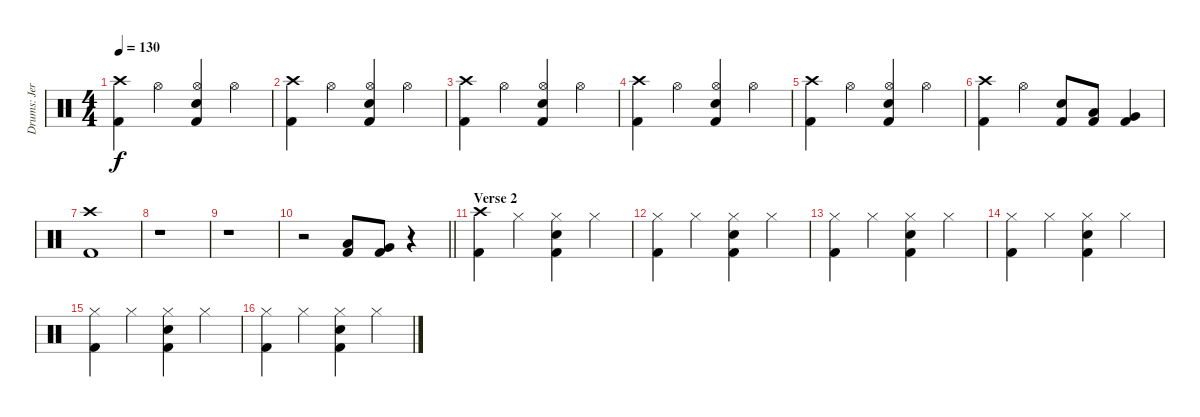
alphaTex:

\track ("Drums: Jere Luokkamäki" "Drums: Jer") {instrument percussion}
\staff {score}
\articulation defaults
\ts (4 4)
\tempo 130
\clef neutral
\ks aminor
("Crash high (hit)" "Kick (hit) 2").4{dy f} "Hi-Hat (open)".4 ("Hi-Hat (open)" "Electric Snare (hit)" "Kick (hit) 2").4 "Hi-Hat (open)".4 |
("Crash high (hit)" "Kick (hit) 2").4 "Hi-Hat (open)".4 ("Hi-Hat (open)" "Electric Snare (hit)" "Kick (hit) 2").4 "Hi-Hat (open)".4 |
("Crash high (hit)" "Kick (hit) 2").4 "Hi-Hat (open)".4 ("Hi-Hat (open)" "Electric Snare (hit)" "Kick (hit) 2").4 "Hi-Hat (open)".4 |
("Crash high (hit)" "Kick (hit) 2").4 "Hi-Hat (open)".4 ("Hi-Hat (open)" "Electric Snare (hit)" "Kick (hit) 2").4 "Hi-Hat (open)".4 |
("Crash high (hit)" "Kick (hit) 2").4 "Hi-Hat (open)".4 ("Hi-Hat (open)" "Electric Snare (hit)" "Kick (hit) 2").4 "Hi-Hat (open)".4 |
("Crash high (hit)" "Kick (hit) 2").4 "Hi-Hat (open)".4 ("Electric Snare (hit)" "Kick (hit) 2").8 ("Low Tom (hit)" "Kick (hit) 2").8 ("Very Low Tom (hit)" "Kick (hit) 2").4 |
("Crash high (hit)" "Kick (hit) 2").1 |
r.1 |
r.1 |
\barLineRight lightlight
r.2 ("Low Tom (hit)" "Kick (hit) 2").8 ("Very Low Tom (hit)" "Kick (hit) 2").8 r.4 |
\section ("" "Verse 2")
("Crash high (hit)" "Kick (hit) 2").4 "Hi-Hat (closed)".4 ("Hi-Hat (closed)" "Electric Snare (hit)" "Kick (hit) 2").4 "Hi-Hat (closed)".4 |
("Hi-Hat (closed)" "Kick (hit) 2").4 "Hi-Hat (closed)".4 ("Hi-Hat (closed)" "Electric Snare (hit)" "Kick (hit) 2").4 "Hi-Hat (closed)".4 |
("Hi-Hat (closed)" "Kick (hit) 2").4 "Hi-Hat (closed)".4 ("Hi-Hat (closed)" "Electric Snare (hit)" "Kick (hit) 2").4 "Hi-Hat (closed)".4 |
("Hi-Hat (closed)" "Kick (hit) 2").4 "Hi-Hat (closed)".4 ("Hi-Hat (closed)" "Electric Snare (hit)" "Kick (hit) 2").4 "Hi-Hat (closed)".4 |
("Hi-Hat (closed)" "Kick (hit) 2").4 "Hi-Hat (closed)".4 ("Hi-Hat (closed)" "Electric Snare (hit)" "Kick (hit) 2").4 "Hi-Hat (closed)".4 |
("Hi-Hat (closed)" "Kick (hit) 2").4 "Hi-Hat (closed)".4 ("Hi-Hat (closed)" "Electric Snare (hit)" "Kick (hit) 2").4 "Hi-Hat (closed)".4
